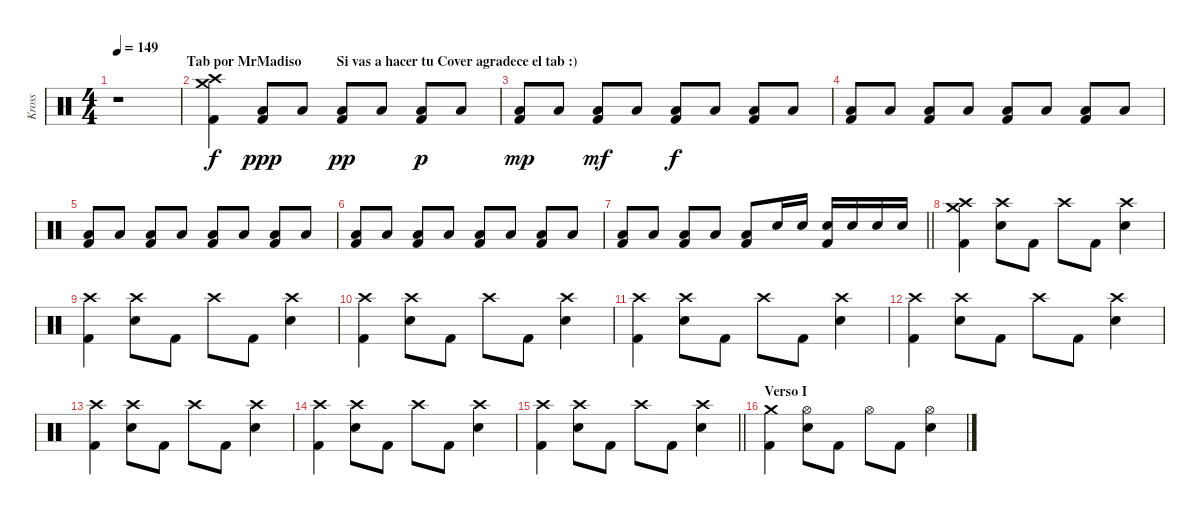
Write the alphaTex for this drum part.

\track ("Kross" "Kross") {instrument percussion}
\staff {score}
\articulation defaults
\ts (4 4)
\section ("" "                     Tab por MrMadiso          Si vas a hacer tu Cover agradece el tab :)")
\tempo 149
\clef neutral
\ks c
r.1{dy f} |
("Crash high (hit)" "Crash medium (hit)" "Kick (hit) 2").4 ("Low Floor Tom (hit)" "Kick (hit) 2").8{dy ppp} "Low Floor Tom (hit)".8 ("Low Floor Tom (hit)" "Kick (hit) 2").8{dy pp} "Low Floor Tom (hit)".8 ("Low Floor Tom (hit)" "Kick (hit) 2").8{dy p} "Low Floor Tom (hit)".8 |
("Low Floor Tom (hit)" "Kick (hit) 2").8{dy mp} "Low Floor Tom (hit)".8 ("Low Floor Tom (hit)" "Kick (hit) 2").8{dy mf} "Low Floor Tom (hit)".8 ("Low Floor Tom (hit)" "Kick (hit) 2").8{dy f} "Low Floor Tom (hit)".8 ("Low Floor Tom (hit)" "Kick (hit) 2").8 "Low Floor Tom (hit)".8 |
("Low Floor Tom (hit)" "Kick (hit) 2").8 "Low Floor Tom (hit)".8 ("Low Floor Tom (hit)" "Kick (hit) 2").8 "Low Floor Tom (hit)".8 ("Low Floor Tom (hit)" "Kick (hit) 2").8 "Low Floor Tom (hit)".8 ("Low Floor Tom (hit)" "Kick (hit) 2").8 "Low Floor Tom (hit)".8 |
("Low Floor Tom (hit)" "Kick (hit) 2").8 "Low Floor Tom (hit)".8 ("Low Floor Tom (hit)" "Kick (hit) 2").8 "Low Floor Tom (hit)".8 ("Low Floor Tom (hit)" "Kick (hit) 2").8 "Low Floor Tom (hit)".8 ("Low Floor Tom (hit)" "Kick (hit) 2").8 "Low Floor Tom (hit)".8 |
("Low Floor Tom (hit)" "Kick (hit) 2").8 "Low Floor Tom (hit)".8 ("Low Floor Tom (hit)" "Kick (hit) 2").8 "Low Floor Tom (hit)".8 ("Low Floor Tom (hit)" "Kick (hit) 2").8 "Low Floor Tom (hit)".8 ("Low Floor Tom (hit)" "Kick (hit) 2").8 "Low Floor Tom (hit)".8 |
\barLineRight lightlight
("Low Floor Tom (hit)" "Kick (hit) 2").8 "Low Floor Tom (hit)".8 ("Low Floor Tom (hit)" "Kick (hit) 2").8 "Low Floor Tom (hit)".8 ("Low Floor Tom (hit)" "Kick (hit) 2").8 "Electric Snare (hit)".16 "Electric Snare (hit)".16 ("Electric Snare (hit)" "Kick (hit) 2").16 "Electric Snare (hit)".16 "Electric Snare (hit)".16 "Electric Snare (hit)".16 |
("Crash medium (hit)" "Crash high (hit)" "Kick (hit) 2").4 ("Crash high (hit)" "Electric Snare (hit)").8 "Kick (hit) 2".8 "Crash high (hit)".8 "Kick (hit) 2".8 ("Crash high (hit)" "Electric Snare (hit)").4 |
("Crash high (hit)" "Kick (hit) 2").4 ("Crash high (hit)" "Electric Snare (hit)").8 "Kick (hit) 2".8 "Crash high (hit)".8 "Kick (hit) 2".8 ("Crash high (hit)" "Electric Snare (hit)").4 |
("Crash high (hit)" "Kick (hit) 2").4 ("Crash high (hit)" "Electric Snare (hit)").8 "Kick (hit) 2".8 "Crash high (hit)".8 "Kick (hit) 2".8 ("Crash high (hit)" "Electric Snare (hit)").4 |
("Crash high (hit)" "Kick (hit) 2").4 ("Crash high (hit)" "Electric Snare (hit)").8 "Kick (hit) 2".8 "Crash high (hit)".8 "Kick (hit) 2".8 ("Crash high (hit)" "Electric Snare (hit)").4 |
("Crash high (hit)" "Kick (hit) 2").4 ("Crash high (hit)" "Electric Snare (hit)").8 "Kick (hit) 2".8 "Crash high (hit)".8 "Kick (hit) 2".8 ("Crash high (hit)" "Electric Snare (hit)").4 |
("Crash high (hit)" "Kick (hit) 2").4 ("Crash high (hit)" "Electric Snare (hit)").8 "Kick (hit) 2".8 "Crash high (hit)".8 "Kick (hit) 2".8 ("Crash high (hit)" "Electric Snare (hit)").4 |
("Crash high (hit)" "Kick (hit) 2").4 ("Crash high (hit)" "Electric Snare (hit)").8 "Kick (hit) 2".8 "Crash high (hit)".8 "Kick (hit) 2".8 ("Crash high (hit)" "Electric Snare (hit)").4 |
\barLineRight lightlight
("Crash high (hit)" "Kick (hit) 2").4 ("Crash high (hit)" "Electric Snare (hit)").8 "Kick (hit) 2".8 "Crash high (hit)".8 "Kick (hit) 2".8 ("Crash high (hit)" "Electric Snare (hit)").4 |
\section ("" "Verso I")
("Crash medium (hit)" "Kick (hit) 2").4 ("Hi-Hat (open)" "Electric Snare (hit)").8 "Kick (hit) 2".8 "Hi-Hat (open)".8 "Kick (hit) 2".8 ("Hi-Hat (open)" "Electric Snare (hit)").4
